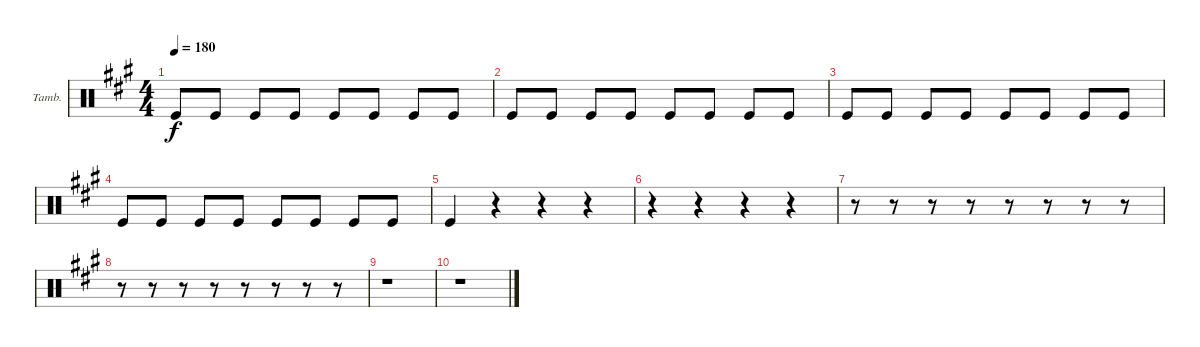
\bracketExtendMode groupsimilarinstruments
\firstSystemTrackNameOrientation horizontal
\otherSystemsTrackNameOrientation horizontal
\track ("Tambourine" "Tamb.") {instrument percussion}
\staff {score}
\articulation defaults
\ts (4 4)
\tempo 180
\clef neutral
\ks a "Kick (hit)".8{dy f} "Kick (hit)".8 "Kick (hit)".8 "Kick (hit)".8 "Kick (hit)".8 "Kick (hit)".8 "Kick (hit)".8 "Kick (hit)".8
|
"Kick (hit)".8 "Kick (hit)".8 "Kick (hit)".8 "Kick (hit)".8 "Kick (hit)".8 "Kick (hit)".8 "Kick (hit)".8 "Kick (hit)".8 |
"Kick (hit)".8 "Kick (hit)".8 "Kick (hit)".8 "Kick (hit)".8 "Kick (hit)".8 "Kick (hit)".8 "Kick (hit)".8 "Kick (hit)".8 |
"Kick (hit)".8 "Kick (hit)".8 "Kick (hit)".8 "Kick (hit)".8 "Kick (hit)".8 "Kick (hit)".8 "Kick (hit)".8 "Kick (hit)".8 |
"Kick (hit)".4 r.4 r.4 r.4 |
r.4 r.4 r.4 r.4 |
r.8 r.8 r.8 r.8 r.8 r.8 r.8 r.8 |
r.8 r.8 r.8 r.8 r.8 r.8 r.8 r.8 |
r.1 |
r.1
